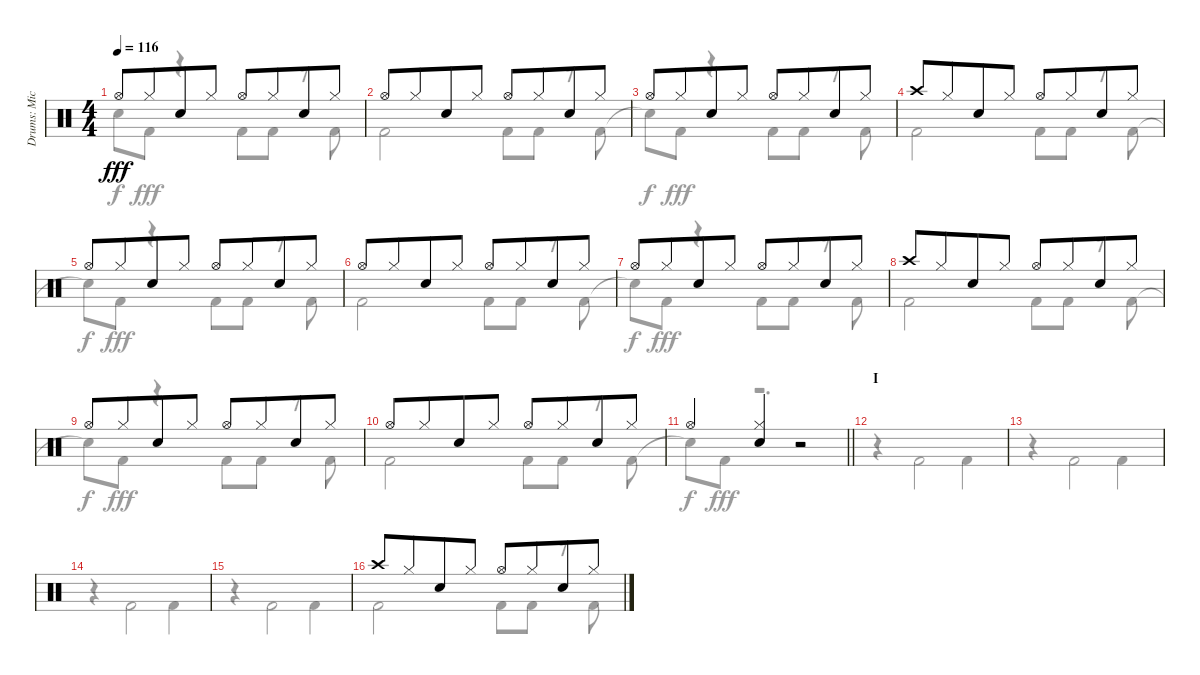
\track ("Drums: Mick" "Drums: Mic") {instrument percussion}
\staff {score}
\articulation defaults
\voice
\ts (4 4)
\tempo 116
\clef neutral
\ks c "Hi-Hat (open)".8{dy fff} "Hi-Hat (closed)".8{beam merge} "Snare (hit) 2".8 "Hi-Hat (closed)".8 "Hi-Hat (open)".8 "Hi-Hat (closed)".8{beam merge} "Snare (hit) 2".8 "Hi-Hat (closed)".8
|
"Hi-Hat (open)".8 "Hi-Hat (closed)".8{beam merge} "Snare (hit) 2".8 "Hi-Hat (closed)".8 "Hi-Hat (open)".8 "Hi-Hat (closed)".8{beam merge} "Snare (hit) 2".8 "Hi-Hat (closed)".8 |
"Hi-Hat (open)".8 "Hi-Hat (closed)".8{beam merge} "Snare (hit) 2".8 "Hi-Hat (closed)".8 "Hi-Hat (open)".8 "Hi-Hat (closed)".8{beam merge} "Snare (hit) 2".8 "Hi-Hat (closed)".8 |
"Crash high (hit)".8 "Hi-Hat (closed)".8{beam merge} "Snare (hit) 2".8 "Hi-Hat (closed)".8 "Hi-Hat (open)".8 "Hi-Hat (closed)".8{beam merge} "Snare (hit) 2".8 "Hi-Hat (closed)".8 |
"Hi-Hat (open)".8 "Hi-Hat (closed)".8{beam merge} "Snare (hit) 2".8 "Hi-Hat (closed)".8 "Hi-Hat (open)".8 "Hi-Hat (closed)".8{beam merge} "Snare (hit) 2".8 "Hi-Hat (closed)".8 |
"Hi-Hat (open)".8 "Hi-Hat (closed)".8{beam merge} "Snare (hit) 2".8 "Hi-Hat (closed)".8 "Hi-Hat (open)".8 "Hi-Hat (closed)".8{beam merge} "Snare (hit) 2".8 "Hi-Hat (closed)".8 |
"Hi-Hat (open)".8 "Hi-Hat (closed)".8{beam merge} "Snare (hit) 2".8 "Hi-Hat (closed)".8 "Hi-Hat (open)".8 "Hi-Hat (closed)".8{beam merge} "Snare (hit) 2".8 "Hi-Hat (closed)".8 |
"Crash high (hit)".8 "Hi-Hat (closed)".8{beam merge} "Snare (hit) 2".8 "Hi-Hat (closed)".8 "Hi-Hat (open)".8 "Hi-Hat (closed)".8{beam merge} "Snare (hit) 2".8 "Hi-Hat (closed)".8 |
"Hi-Hat (open)".8 "Hi-Hat (closed)".8{beam merge} "Snare (hit) 2".8 "Hi-Hat (closed)".8 "Hi-Hat (open)".8 "Hi-Hat (closed)".8{beam merge} "Snare (hit) 2".8 "Hi-Hat (closed)".8 |
"Hi-Hat (open)".8 "Hi-Hat (closed)".8{beam merge} "Snare (hit) 2".8 "Hi-Hat (closed)".8 "Hi-Hat (open)".8 "Hi-Hat (closed)".8{beam merge} "Snare (hit) 2".8 "Hi-Hat (closed)".8 |
\barLineRight lightlight "Hi-Hat (open)".4{beam merge}
("Hi-Hat (closed)" "Snare (hit) 2").4 r.2 |
\section ("" "I")
|
|
|
|
"Crash high (hit)".8 "Hi-Hat (closed)".8{beam merge} "Snare (hit) 2".8 "Hi-Hat (closed)".8 "Hi-Hat (open)".8 "Hi-Hat (closed)".8{beam merge} "Snare (hit) 2".8 "Hi-Hat (closed)".8
\voice
\clef neutral
\ottava regular
\simile none
\ks c "Snare (hit)"{t}.8{dy f} "Kick (hit) 2".8{dy fff}
r.4 "Kick (hit) 2".8 "Kick (hit) 2".8 r.8 "Kick (hit) 2".8 |
"Kick (hit) 2".2 "Kick (hit) 2".8 "Kick (hit) 2".8 r.8 "Kick (hit) 2".8 |
"Snare (hit)"{t}.8{dy f} "Kick (hit) 2".8{dy fff} r.4 "Kick (hit) 2".8 "Kick (hit) 2".8 r.8 "Kick (hit) 2".8 |
"Kick (hit) 2".2 "Kick (hit) 2".8 "Kick (hit) 2".8 r.8 "Kick (hit) 2".8 |
"Snare (hit)"{t}.8{dy f} "Kick (hit) 2".8{dy fff} r.4 "Kick (hit) 2".8 "Kick (hit) 2".8 r.8 "Kick (hit) 2".8 |
"Kick (hit) 2".2 "Kick (hit) 2".8 "Kick (hit) 2".8 r.8 "Kick (hit) 2".8 |
"Snare (hit)"{t}.8{dy f} "Kick (hit) 2".8{dy fff} r.4 "Kick (hit) 2".8 "Kick (hit) 2".8 r.8 "Kick (hit) 2".8 |
"Kick (hit) 2".2 "Kick (hit) 2".8 "Kick (hit) 2".8 r.8 "Kick (hit) 2".8 |
"Snare (hit)"{t}.8{dy f} "Kick (hit) 2".8{dy fff} r.4 "Kick (hit) 2".8 "Kick (hit) 2".8 r.8 "Kick (hit) 2".8 |
"Kick (hit) 2".2 "Kick (hit) 2".8 "Kick (hit) 2".8 r.8 "Kick (hit) 2".8 |
\barLineRight lightlight "Snare (hit)"{t}.8{dy f} "Kick (hit) 2".8{dy fff}
r.2{d} |
r.4 "Kick (hit) 2".2 "Kick (hit) 2".4 |
r.4 "Kick (hit) 2".2 "Kick (hit) 2".4 |
r.4 "Kick (hit) 2".2 "Kick (hit) 2".4 |
r.4 "Kick (hit) 2".2 "Kick (hit) 2".4 |
"Kick (hit) 2".2 "Kick (hit) 2".8 "Kick (hit) 2".8 r.8 "Kick (hit) 2".8
